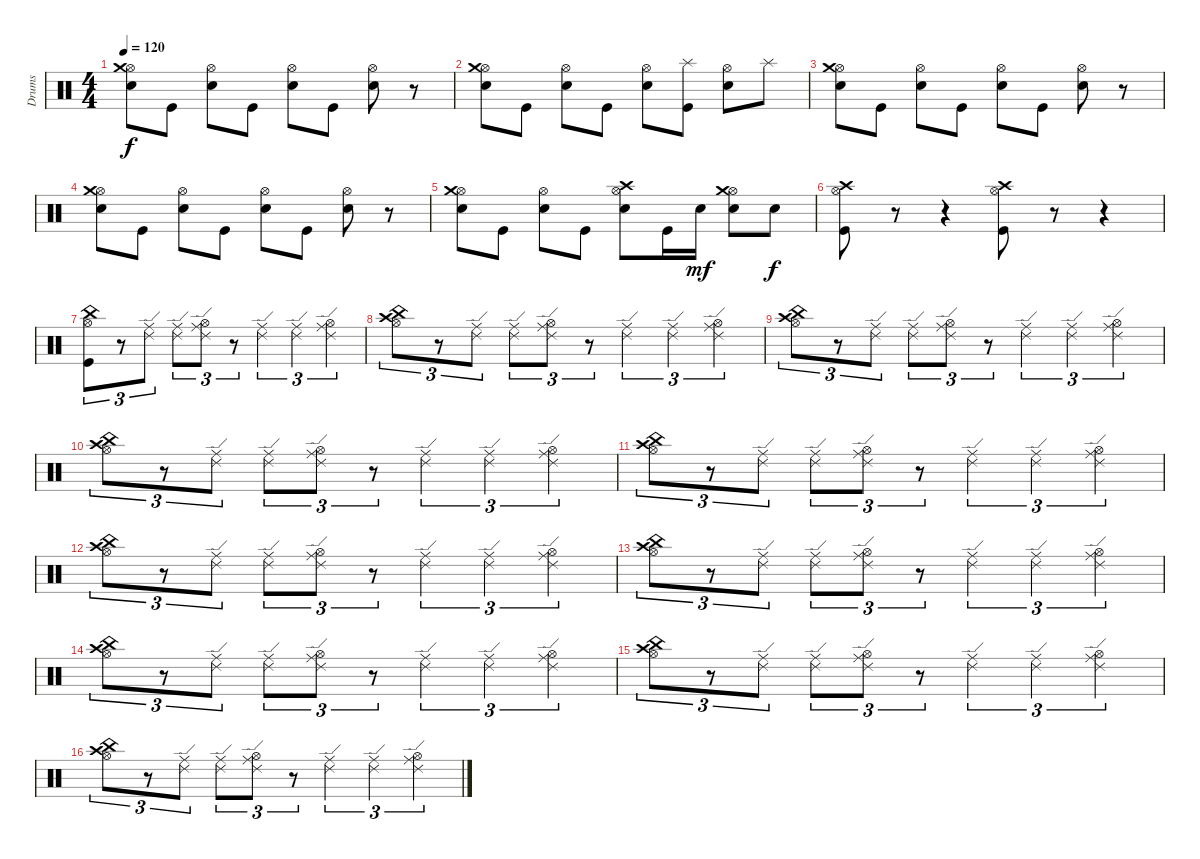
\track ("Drums" "Drums") {instrument percussion}
\staff {score}
\articulation defaults
\ts (4 4)
\tempo 120
\clef neutral
\ks c
("Hi-Hat (open)" "Crash medium (hit)" "Snare (hit) 2").8{dy f} "Kick (hit)".8 ("Hi-Hat (open)" "Snare (hit) 2").8 "Kick (hit)".8 ("Hi-Hat (open)" "Snare (hit) 2").8 "Kick (hit)".8 ("Hi-Hat (open)" "Snare (hit) 2").8 r.8 |
("Hi-Hat (open)" "Crash medium (hit)" "Snare (hit) 2").8 "Kick (hit)".8 ("Hi-Hat (open)" "Snare (hit) 2").8 "Kick (hit)".8 ("Hi-Hat (open)" "Snare (hit) 2").8 ("Splash (hit)" "Kick (hit)").8 ("Hi-Hat (open)" "Snare (hit) 2").8 "Splash (hit)".8 |
("Hi-Hat (open)" "Crash medium (hit)" "Snare (hit) 2").8 "Kick (hit)".8 ("Hi-Hat (open)" "Snare (hit) 2").8 "Kick (hit)".8 ("Hi-Hat (open)" "Snare (hit) 2").8 "Kick (hit)".8 ("Hi-Hat (open)" "Snare (hit) 2").8 r.8 |
("Hi-Hat (open)" "Crash medium (hit)" "Snare (hit) 2").8 "Kick (hit)".8 ("Hi-Hat (open)" "Snare (hit) 2").8 "Kick (hit)".8 ("Hi-Hat (open)" "Snare (hit) 2").8 "Kick (hit)".8 ("Hi-Hat (open)" "Snare (hit) 2").8 r.8 |
("Hi-Hat (open)" "Crash medium (hit)" "Snare (hit) 2").8 "Kick (hit)".8 ("Hi-Hat (open)" "Snare (hit) 2").8 "Kick (hit)".8 ("Hi-Hat (open)" "Crash high (hit)" "Snare (hit) 2").8 "Kick (hit)".16 "Snare (hit) 2".16{dy mf} ("Hi-Hat (open)" "Crash medium (hit)" "Snare (hit) 2").8 "Snare (hit) 2".8{dy f} |
("Hi-Hat (open)" "Crash high (hit)" "Kick (hit)").8 r.8 r.4 ("Hi-Hat (open)" "Crash high (hit)" "Kick (hit)").8 r.8 r.4 |
("Hi-Hat (open)" "China (hit)" "Kick (hit)").8{tu (3 2)} r.8{tu (3 2)} ("Ride (middle)" "Ride (edge) 2").8{tu (3 2)} ("Ride (middle)" "Ride (edge) 2").8{tu (3 2)} ("Hi-Hat (open)" "Ride (middle)" "Ride (edge) 2").8{tu (3 2)} r.8{tu (3 2)} ("Ride (middle)" "Ride (edge) 2").4{tu (3 2)} ("Ride (middle)" "Ride (edge) 2").4{tu (3 2)} ("Hi-Hat (open)" "Ride (middle)" "Ride (edge) 2").4{tu (3 2)} |
("Hi-Hat (open)" "China (hit)" "Crash high (hit)").8{tu (3 2)} r.8{tu (3 2)} ("Ride (middle)" "Ride (edge) 2").8{tu (3 2)} ("Ride (edge) 2" "Ride (middle)").8{tu (3 2)} ("Hi-Hat (open)" "Ride (middle)" "Ride (edge) 2").8{tu (3 2)} r.8{tu (3 2)} ("Ride (middle)" "Ride (edge) 2").4{tu (3 2)} ("Ride (edge) 2" "Ride (middle)").4{tu (3 2)} ("Hi-Hat (open)" "Ride (middle)" "Ride (edge) 2").4{tu (3 2)} |
("Hi-Hat (open)" "China (hit)" "Crash high (hit)").8{tu (3 2)} r.8{tu (3 2)} ("Ride (middle)" "Ride (edge) 2").8{tu (3 2)} ("Ride (middle)" "Ride (edge) 2").8{tu (3 2)} ("Hi-Hat (open)" "Ride (middle)" "Ride (edge) 2").8{tu (3 2)} r.8{tu (3 2)} ("Ride (middle)" "Ride (edge) 2").4{tu (3 2)} ("Ride (middle)" "Ride (edge) 2").4{tu (3 2)} ("Hi-Hat (open)" "Ride (middle)" "Ride (edge) 2").4{tu (3 2)} |
("Hi-Hat (open)" "China (hit)" "Crash high (hit)").8{tu (3 2)} r.8{tu (3 2)} ("Ride (middle)" "Ride (edge) 2").8{tu (3 2)} ("Ride (middle)" "Ride (edge) 2").8{tu (3 2)} ("Hi-Hat (open)" "Ride (middle)" "Ride (edge) 2").8{tu (3 2)} r.8{tu (3 2)} ("Ride (middle)" "Ride (edge) 2").4{tu (3 2)} ("Ride (middle)" "Ride (edge) 2").4{tu (3 2)} ("Hi-Hat (open)" "Ride (middle)" "Ride (edge) 2").4{tu (3 2)} |
("Hi-Hat (open)" "China (hit)" "Crash high (hit)").8{tu (3 2)} r.8{tu (3 2)} ("Ride (middle)" "Ride (edge) 2").8{tu (3 2)} ("Ride (middle)" "Ride (edge) 2").8{tu (3 2)} ("Hi-Hat (open)" "Ride (middle)" "Ride (edge) 2").8{tu (3 2)} r.8{tu (3 2)} ("Ride (middle)" "Ride (edge) 2").4{tu (3 2)} ("Ride (middle)" "Ride (edge) 2").4{tu (3 2)} ("Hi-Hat (open)" "Ride (middle)" "Ride (edge) 2").4{tu (3 2)} |
("Hi-Hat (open)" "Crash high (hit)" "China (hit)").8{tu (3 2)} r.8{tu (3 2)} ("Ride (middle)" "Ride (edge) 2").8{tu (3 2)} ("Ride (middle)" "Ride (edge) 2").8{tu (3 2)} ("Hi-Hat (open)" "Ride (middle)" "Ride (edge) 2").8{tu (3 2)} r.8{tu (3 2)} ("Ride (middle)" "Ride (edge) 2").4{tu (3 2)} ("Ride (middle)" "Ride (edge) 2").4{tu (3 2)} ("Hi-Hat (open)" "Ride (middle)" "Ride (edge) 2").4{tu (3 2)} |
("Hi-Hat (open)" "Crash high (hit)" "China (hit)").8{tu (3 2)} r.8{tu (3 2)} ("Ride (middle)" "Ride (edge) 2").8{tu (3 2)} ("Ride (middle)" "Ride (edge) 2").8{tu (3 2)} ("Hi-Hat (open)" "Ride (middle)" "Ride (edge) 2").8{tu (3 2)} r.8{tu (3 2)} ("Ride (middle)" "Ride (edge) 2").4{tu (3 2)} ("Ride (middle)" "Ride (edge) 2").4{tu (3 2)} ("Hi-Hat (open)" "Ride (middle)" "Ride (edge) 2").4{tu (3 2)} |
("Hi-Hat (open)" "Crash high (hit)" "China (hit)").8{tu (3 2)} r.8{tu (3 2)} ("Ride (middle)" "Ride (edge) 2").8{tu (3 2)} ("Ride (edge) 2" "Ride (middle)").8{tu (3 2)} ("Hi-Hat (open)" "Ride (middle)" "Ride (edge) 2").8{tu (3 2)} r.8{tu (3 2)} ("Ride (middle)" "Ride (edge) 2").4{tu (3 2)} ("Ride (middle)" "Ride (edge) 2").4{tu (3 2)} ("Hi-Hat (open)" "Ride (middle)" "Ride (edge) 2").4{tu (3 2)} |
("Hi-Hat (open)" "Crash high (hit)" "China (hit)").8{tu (3 2)} r.8{tu (3 2)} ("Ride (middle)" "Ride (edge) 2").8{tu (3 2)} ("Ride (middle)" "Ride (edge) 2").8{tu (3 2)} ("Hi-Hat (open)" "Ride (middle)" "Ride (edge) 2").8{tu (3 2)} r.8{tu (3 2)} ("Ride (middle)" "Ride (edge) 2").4{tu (3 2)} ("Ride (middle)" "Ride (edge) 2").4{tu (3 2)} ("Hi-Hat (open)" "Ride (middle)" "Ride (edge) 2").4{tu (3 2)} |
("Hi-Hat (open)" "Crash high (hit)" "China (hit)").8{tu (3 2)} r.8{tu (3 2)} ("Ride (middle)" "Ride (edge) 2").8{tu (3 2)} ("Ride (middle)" "Ride (edge) 2").8{tu (3 2)} ("Hi-Hat (open)" "Ride (middle)" "Ride (edge) 2").8{tu (3 2)} r.8{tu (3 2)} ("Ride (middle)" "Ride (edge) 2").4{tu (3 2)} ("Ride (middle)" "Ride (edge) 2").4{tu (3 2)} ("Hi-Hat (open)" "Ride (middle)" "Ride (edge) 2").4{tu (3 2)}
